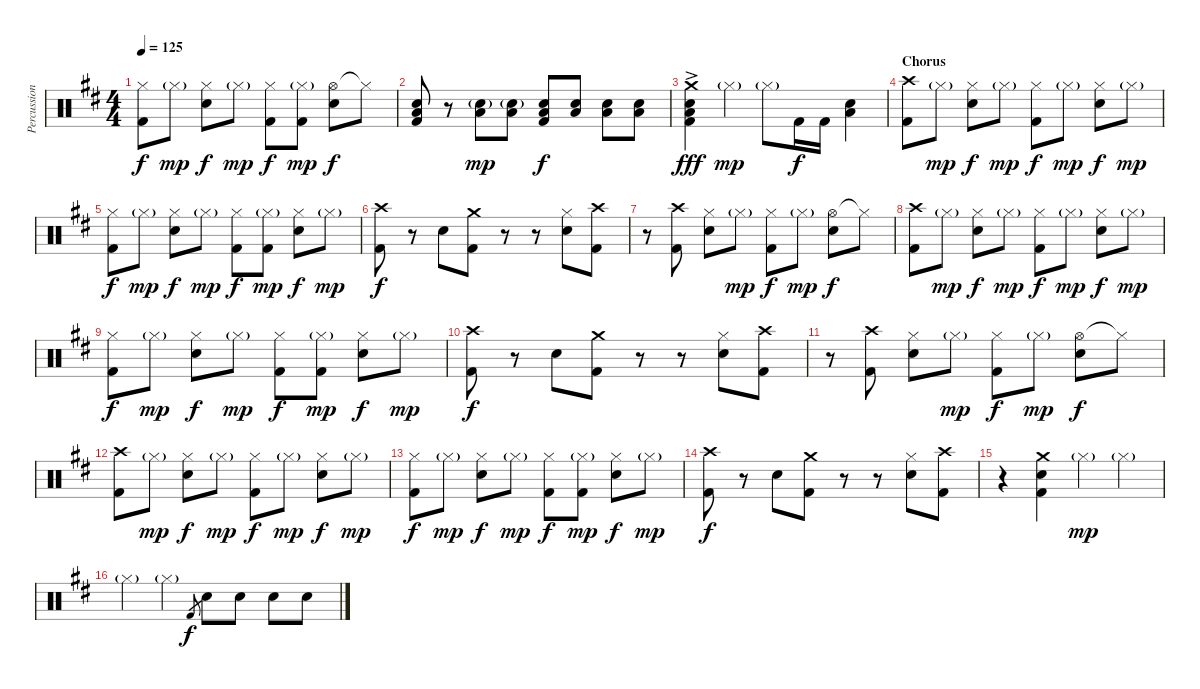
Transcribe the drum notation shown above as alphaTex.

\track ("Percussion" "Percussion") {instrument percussion}
\staff {score}
\articulation defaults
\ts (4 4)
\tempo 125
\clef neutral
\ks bminor
("Hi-Hat (closed)" "Kick (hit) 2").8{dy f} "Hi-Hat (closed)"{g}.8{dy mp} ("Hi-Hat (closed)" "Snare (hit) 2").8{dy f} "Hi-Hat (closed)"{g}.8{dy mp} ("Hi-Hat (closed)" "Kick (hit) 2").8{dy f} ("Hi-Hat (closed)"{g} "Kick (hit) 2").8{dy mp} ("Hi-Hat (open)" "Snare (hit) 2").8{dy f} "Hi-Hat (closed)"{t}.8 |
("Low Floor Tom (hit)" "Snare (hit) 2" "Kick (hit) 2").8 r.8 ("Low Floor Tom (hit)" "Electric Snare (hit)"{g}).8{dy mp} ("Low Floor Tom (hit)" "Electric Snare (hit)"{g}).8 ("Low Floor Tom (hit)" "Electric Snare (hit)" "Kick (hit) 2").8{dy f} ("Low Floor Tom (hit)" "Electric Snare (hit)").8 ("Low Floor Tom (hit)" "Snare (hit) 2").8 ("Low Floor Tom (hit)" "Snare (hit) 2").8 |
("Crash medium (hit)"{ac} "Low Floor Tom (hit)" "Snare (hit) 2"{ac} "Kick (hit) 2").4{dy fff} "Hi-Hat (closed)"{g}.4{dy mp} "Hi-Hat (closed)"{g}.8 "Kick (hit) 2".16{dy f} "Kick (hit) 2".16 ("Low Floor Tom (hit)" "Snare (hit) 2").4 |
\section ("" "Chorus")
("Crash high (hit)" "Kick (hit) 2").8 "Hi-Hat (closed)"{g}.8{dy mp} ("Hi-Hat (closed)" "Snare (hit) 2").8{dy f} "Hi-Hat (closed)"{g}.8{dy mp} ("Hi-Hat (closed)" "Kick (hit) 2").8{dy f} "Hi-Hat (closed)"{g}.8{dy mp} ("Hi-Hat (closed)" "Snare (hit) 2").8{dy f} "Hi-Hat (closed)"{g}.8{dy mp} |
("Hi-Hat (closed)" "Kick (hit) 2").8{dy f} "Hi-Hat (closed)"{g}.8{dy mp} ("Hi-Hat (closed)" "Snare (hit) 2").8{dy f} "Hi-Hat (closed)"{g}.8{dy mp} ("Hi-Hat (closed)" "Kick (hit) 2").8{dy f} ("Hi-Hat (closed)"{g} "Kick (hit) 2").8{dy mp} ("Hi-Hat (closed)" "Snare (hit) 2").8{dy f} "Hi-Hat (closed)"{g}.8{dy mp} |
("Crash high (hit)" "Kick (hit) 2").8{dy f} r.8 "Snare (hit) 2".8 ("Crash medium (hit)" "Kick (hit) 2").8 r.8 r.8 ("Hi-Hat (closed)" "Snare (hit) 2").8 ("Crash high (hit)" "Kick (hit) 2").8 |
r.8 ("Crash high (hit)" "Kick (hit) 2").8 ("Hi-Hat (closed)" "Snare (hit) 2").8 "Hi-Hat (closed)"{g}.8{dy mp} ("Hi-Hat (closed)" "Kick (hit) 2").8{dy f} "Hi-Hat (closed)"{g}.8{dy mp} ("Hi-Hat (open)" "Snare (hit) 2").8{dy f} "Hi-Hat (closed)"{t}.8 |
("Crash high (hit)" "Kick (hit) 2").8 "Hi-Hat (closed)"{g}.8{dy mp} ("Hi-Hat (closed)" "Snare (hit) 2").8{dy f} "Hi-Hat (closed)"{g}.8{dy mp} ("Hi-Hat (closed)" "Kick (hit) 2").8{dy f} "Hi-Hat (closed)"{g}.8{dy mp} ("Hi-Hat (closed)" "Snare (hit) 2").8{dy f} "Hi-Hat (closed)"{g}.8{dy mp} |
("Hi-Hat (closed)" "Kick (hit) 2").8{dy f} "Hi-Hat (closed)"{g}.8{dy mp} ("Hi-Hat (closed)" "Snare (hit) 2").8{dy f} "Hi-Hat (closed)"{g}.8{dy mp} ("Hi-Hat (closed)" "Kick (hit) 2").8{dy f} ("Hi-Hat (closed)"{g} "Kick (hit) 2").8{dy mp} ("Hi-Hat (closed)" "Snare (hit) 2").8{dy f} "Hi-Hat (closed)"{g}.8{dy mp} |
("Crash high (hit)" "Kick (hit) 2").8{dy f} r.8 "Snare (hit) 2".8 ("Crash medium (hit)" "Kick (hit) 2").8 r.8 r.8 ("Hi-Hat (closed)" "Snare (hit) 2").8 ("Crash high (hit)" "Kick (hit) 2").8 |
r.8 ("Crash high (hit)" "Kick (hit) 2").8 ("Hi-Hat (closed)" "Snare (hit) 2").8 "Hi-Hat (closed)"{g}.8{dy mp} ("Hi-Hat (closed)" "Kick (hit) 2").8{dy f} "Hi-Hat (closed)"{g}.8{dy mp} ("Hi-Hat (open)" "Snare (hit) 2").8{dy f} "Hi-Hat (closed)"{t}.8 |
("Crash high (hit)" "Kick (hit) 2").8 "Hi-Hat (closed)"{g}.8{dy mp} ("Hi-Hat (closed)" "Snare (hit) 2").8{dy f} "Hi-Hat (closed)"{g}.8{dy mp} ("Hi-Hat (closed)" "Kick (hit) 2").8{dy f} "Hi-Hat (closed)"{g}.8{dy mp} ("Hi-Hat (closed)" "Snare (hit) 2").8{dy f} "Hi-Hat (closed)"{g}.8{dy mp} |
("Hi-Hat (closed)" "Kick (hit) 2").8{dy f} "Hi-Hat (closed)"{g}.8{dy mp} ("Hi-Hat (closed)" "Snare (hit) 2").8{dy f} "Hi-Hat (closed)"{g}.8{dy mp} ("Hi-Hat (closed)" "Kick (hit) 2").8{dy f} ("Hi-Hat (closed)"{g} "Kick (hit) 2").8{dy mp} ("Hi-Hat (closed)" "Snare (hit) 2").8{dy f} "Hi-Hat (closed)"{g}.8{dy mp} |
("Crash high (hit)" "Kick (hit) 2").8{dy f} r.8 "Snare (hit) 2".8 ("Crash medium (hit)" "Kick (hit) 2").8 r.8 r.8 ("Hi-Hat (closed)" "Snare (hit) 2").8 ("Crash high (hit)" "Kick (hit) 2").8 |
r.4 ("Crash medium (hit)" "Snare (hit) 2" "Kick (hit) 2").4 "Hi-Hat (closed)"{g}.4{dy mp} "Hi-Hat (closed)"{g}.4 |
"Hi-Hat (closed)"{g}.4 "Hi-Hat (closed)"{g}.4 "Kick (hit) 2".8{gr dy f} "Snare (hit) 2".8 "Snare (hit) 2".8 "Snare (hit) 2".8 "Snare (hit) 2".8
